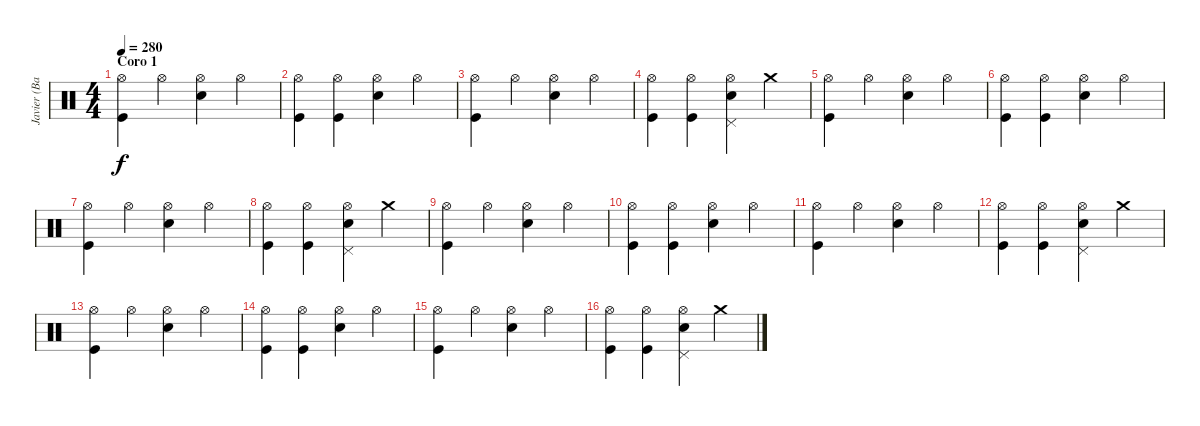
\track ("Javier (Bateria)" "Javier (Ba") {instrument percussion}
\staff {score}
\articulation defaults
\ts (4 4)
\section ("" "Coro 1")
\tempo 280
\clef neutral
\ks c
("Hi-Hat (open)" "Kick (hit)").4{dy f} "Hi-Hat (open)".4 ("Hi-Hat (open)" "Snare (hit) 2").4 "Hi-Hat (open)".4 |
("Hi-Hat (open)" "Kick (hit)").4 ("Hi-Hat (open)" "Kick (hit)").4 ("Hi-Hat (open)" "Snare (hit) 2").4 "Hi-Hat (open)".4 |
("Hi-Hat (open)" "Kick (hit)").4 "Hi-Hat (open)".4 ("Hi-Hat (open)" "Snare (hit) 2").4 "Hi-Hat (open)".4 |
("Hi-Hat (open)" "Kick (hit)").4 ("Hi-Hat (open)" "Kick (hit)").4 ("Hi-Hat (open)" "Pedal Hi-Hat (hit)" "Snare (hit) 2").4 "Crash medium (hit)".4 |
("Hi-Hat (open)" "Kick (hit)").4 "Hi-Hat (open)".4 ("Hi-Hat (open)" "Snare (hit) 2").4 "Hi-Hat (open)".4 |
("Hi-Hat (open)" "Kick (hit)").4 ("Hi-Hat (open)" "Kick (hit)").4 ("Hi-Hat (open)" "Snare (hit) 2").4 "Hi-Hat (open)".4 |
("Hi-Hat (open)" "Kick (hit)").4 "Hi-Hat (open)".4 ("Hi-Hat (open)" "Snare (hit) 2").4 "Hi-Hat (open)".4 |
("Hi-Hat (open)" "Kick (hit)").4 ("Hi-Hat (open)" "Kick (hit)").4 ("Hi-Hat (open)" "Pedal Hi-Hat (hit)" "Snare (hit) 2").4 "Crash medium (hit)".4 |
("Hi-Hat (open)" "Kick (hit)").4 "Hi-Hat (open)".4 ("Hi-Hat (open)" "Snare (hit) 2").4 "Hi-Hat (open)".4 |
("Hi-Hat (open)" "Kick (hit)").4 ("Hi-Hat (open)" "Kick (hit)").4 ("Hi-Hat (open)" "Snare (hit) 2").4 "Hi-Hat (open)".4 |
("Hi-Hat (open)" "Kick (hit)").4 "Hi-Hat (open)".4 ("Hi-Hat (open)" "Snare (hit) 2").4 "Hi-Hat (open)".4 |
("Hi-Hat (open)" "Kick (hit)").4 ("Hi-Hat (open)" "Kick (hit)").4 ("Hi-Hat (open)" "Pedal Hi-Hat (hit)" "Snare (hit) 2").4 "Crash medium (hit)".4 |
("Hi-Hat (open)" "Kick (hit)").4 "Hi-Hat (open)".4 ("Hi-Hat (open)" "Snare (hit) 2").4 "Hi-Hat (open)".4 |
("Hi-Hat (open)" "Kick (hit)").4 ("Hi-Hat (open)" "Kick (hit)").4 ("Hi-Hat (open)" "Snare (hit) 2").4 "Hi-Hat (open)".4 |
("Hi-Hat (open)" "Kick (hit)").4 "Hi-Hat (open)".4 ("Hi-Hat (open)" "Snare (hit) 2").4 "Hi-Hat (open)".4 |
("Hi-Hat (open)" "Kick (hit)").4 ("Hi-Hat (open)" "Kick (hit)").4 ("Hi-Hat (open)" "Pedal Hi-Hat (hit)" "Snare (hit) 2").4 "Crash medium (hit)".4
